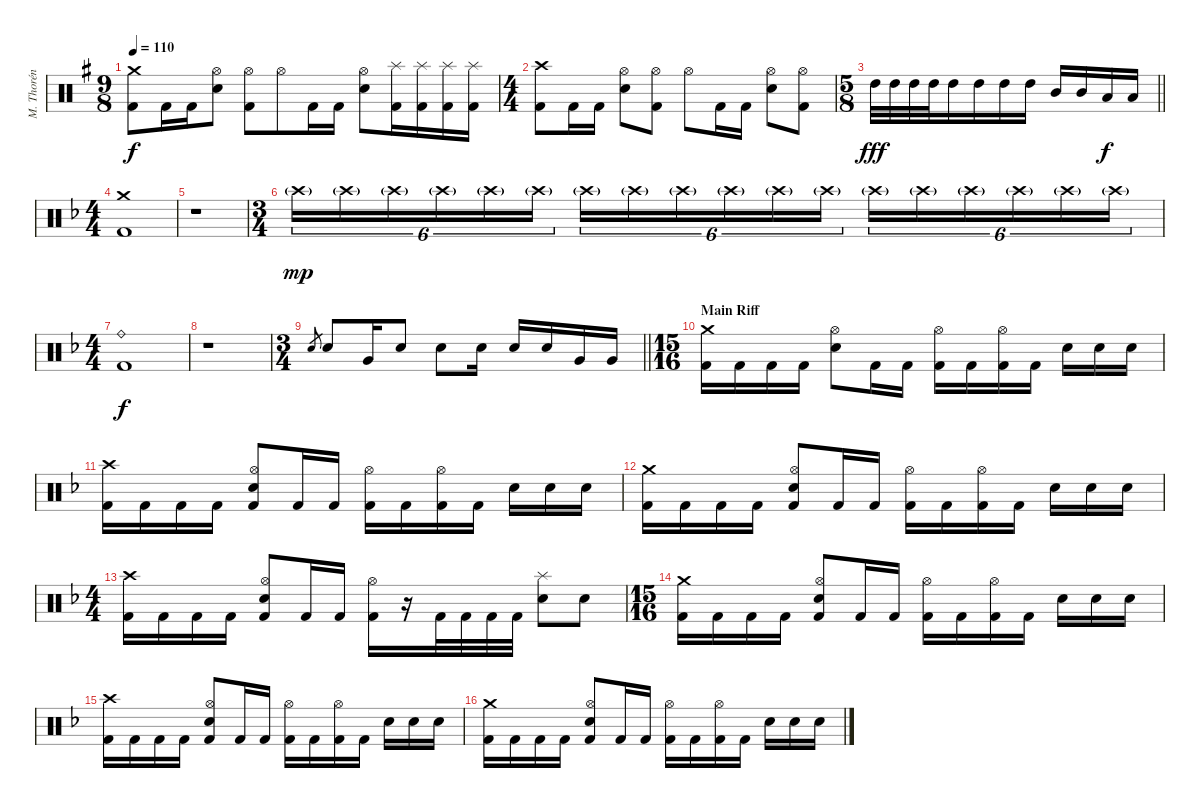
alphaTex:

\track ("M. Thorén (Drums)" "M. Thorén ") {instrument percussion}
\staff {score}
\articulation defaults
\ts (9 8)
\tempo 110
\clef neutral
\ks eminor
("Crash medium (hit)" "Kick (hit) 2").8{dy f} "Kick (hit) 2".16 "Kick (hit) 2".16 ("Hi-Hat (open)" "Electric Snare (hit)").8 ("Hi-Hat (open)" "Kick (hit) 2").8 "Hi-Hat (open)".8 "Kick (hit) 2".16 "Kick (hit) 2".16 ("Hi-Hat (open)" "Electric Snare (hit)").8 ("Splash (hit)" "Kick (hit) 2").16 ("Splash (hit)" "Kick (hit) 2").16 ("Splash (hit)" "Kick (hit) 2").16 ("Splash (hit)" "Kick (hit) 2").16 |
\ts (4 4)
("Crash high (hit)" "Kick (hit) 2").8 "Kick (hit) 2".16 "Kick (hit) 2".16 ("Hi-Hat (open)" "Electric Snare (hit)").8 ("Hi-Hat (open)" "Kick (hit) 2").8 "Hi-Hat (open)".8 "Kick (hit) 2".16 "Kick (hit) 2".16 ("Hi-Hat (open)" "Electric Snare (hit)").8 ("Hi-Hat (open)" "Kick (hit) 2").8 |
\ts (5 8)
\barLineRight lightlight "High Tom (hit)".32{dy fff} "High Tom (hit)".32 "High Tom (hit)".32 "High Tom (hit)".32 "High Tom (hit)".16 "High Tom (hit)".16 "High Tom (hit)".16 "High Tom (hit)".16 "Mid Tom (hit)".16 "Mid Tom (hit)".16 "Low Tom (hit)".16{dy f} "Low Tom (hit)".16
|
\ts (4 4)
\ks dminor
("Crash medium (hit)" "Kick (hit) 2").1 |
r.1 |
\ts (3 4)
"Crash high (hit)"{g}.16{tu (6 4) dy mp volume 0} "Crash high (hit)"{g}.16{tu (6 4) volume 12} "Crash high (hit)"{g}.16{tu (6 4)} "Crash high (hit)"{g}.16{tu (6 4)} "Crash high (hit)"{g}.16{tu (6 4)} "Crash high (hit)"{g}.16{tu (6 4)} "Crash high (hit)"{g}.16{tu (6 4)} "Crash high (hit)"{g}.16{tu (6 4)} "Crash high (hit)"{g}.16{tu (6 4)} "Crash high (hit)"{g}.16{tu (6 4)} "Crash high (hit)"{g}.16{tu (6 4)} "Crash high (hit)"{g}.16{tu (6 4)} "Crash high (hit)"{g}.16{tu (6 4)} "Crash high (hit)"{g}.16{tu (6 4)} "Crash high (hit)"{g}.16{tu (6 4)} "Crash high (hit)"{g}.16{tu (6 4)} "Crash high (hit)"{g}.16{tu (6 4)} "Crash high (hit)"{g}.16{tu (6 4)} |
\ts (4 4)
("Ride (bell)" "Kick (hit) 2").1{dy f} |
r.1 |
\ts (3 4)
\barLineRight lightlight "Electric Snare (hit)".8{gr} "Electric Snare (hit)".8 "Very Low Tom (hit)".16 "Electric Snare (hit)".8 "Electric Snare (hit)".8 "Electric Snare (hit)".16 "Electric Snare (hit)".16 "Electric Snare (hit)".16 "Very Low Tom (hit)".16 "Very Low Tom (hit)".16
|
\ts (15 16)
\section ("" "Main Riff")
("Crash medium (hit)" "Kick (hit) 2").16 "Kick (hit) 2".16 "Kick (hit) 2".16 "Kick (hit) 2".16 ("Hi-Hat (open)" "Electric Snare (hit)").8 "Kick (hit) 2".16 "Kick (hit) 2".16 ("Hi-Hat (open)" "Kick (hit) 2").16 "Kick (hit) 2".16 ("Hi-Hat (open)" "Kick (hit) 2").16 "Kick (hit) 2".16 "Electric Snare (hit)".16 "Electric Snare (hit)".16 "Electric Snare (hit)".16 |
("Crash high (hit)" "Kick (hit) 2").16 "Kick (hit) 2".16 "Kick (hit) 2".16 "Kick (hit) 2".16 ("Hi-Hat (open)" "Electric Snare (hit)" "Kick (hit) 2").8 "Kick (hit) 2".16 "Kick (hit) 2".16 ("Hi-Hat (open)" "Kick (hit) 2").16 "Kick (hit) 2".16 ("Hi-Hat (open)" "Kick (hit) 2").16 "Kick (hit) 2".16 "Electric Snare (hit)".16 "Electric Snare (hit)".16 "Electric Snare (hit)".16 |
("Crash medium (hit)" "Kick (hit) 2").16 "Kick (hit) 2".16 "Kick (hit) 2".16 "Kick (hit) 2".16 ("Hi-Hat (open)" "Electric Snare (hit)" "Kick (hit) 2").8 "Kick (hit) 2".16 "Kick (hit) 2".16 ("Hi-Hat (open)" "Kick (hit) 2").16 "Kick (hit) 2".16 ("Hi-Hat (open)" "Kick (hit) 2").16 "Kick (hit) 2".16 "Electric Snare (hit)".16 "Electric Snare (hit)".16 "Electric Snare (hit)".16 |
\ts (4 4)
("Crash high (hit)" "Kick (hit) 2").16 "Kick (hit) 2".16 "Kick (hit) 2".16 "Kick (hit) 2".16 ("Hi-Hat (open)" "Electric Snare (hit)" "Kick (hit) 2").8 "Kick (hit) 2".16 "Kick (hit) 2".16 ("Hi-Hat (open)" "Kick (hit) 2").16 r.16 "Kick (hit) 2".32 "Kick (hit) 2".32 "Kick (hit) 2".32 "Kick (hit) 2".32 ("Splash (hit)" "Electric Snare (hit)").8 "Electric Snare (hit)".8 |
\ts (15 16)
("Crash medium (hit)" "Kick (hit) 2").16 "Kick (hit) 2".16 "Kick (hit) 2".16 "Kick (hit) 2".16 ("Hi-Hat (open)" "Electric Snare (hit)" "Kick (hit) 2").8 "Kick (hit) 2".16 "Kick (hit) 2".16 ("Hi-Hat (open)" "Kick (hit) 2").16 "Kick (hit) 2".16 ("Hi-Hat (open)" "Kick (hit) 2").16 "Kick (hit) 2".16 "Electric Snare (hit)".16 "Electric Snare (hit)".16 "Electric Snare (hit)".16 |
("Crash high (hit)" "Kick (hit) 2").16 "Kick (hit) 2".16 "Kick (hit) 2".16 "Kick (hit) 2".16 ("Hi-Hat (open)" "Electric Snare (hit)" "Kick (hit) 2").8 "Kick (hit) 2".16 "Kick (hit) 2".16 ("Hi-Hat (open)" "Kick (hit) 2").16 "Kick (hit) 2".16 ("Hi-Hat (open)" "Kick (hit) 2").16 "Kick (hit) 2".16 "Electric Snare (hit)".16 "Electric Snare (hit)".16 "Electric Snare (hit)".16 |
("Crash medium (hit)" "Kick (hit) 2").16 "Kick (hit) 2".16 "Kick (hit) 2".16 "Kick (hit) 2".16 ("Hi-Hat (open)" "Electric Snare (hit)" "Kick (hit) 2").8 "Kick (hit) 2".16 "Kick (hit) 2".16 ("Hi-Hat (open)" "Kick (hit) 2").16 "Kick (hit) 2".16 ("Hi-Hat (open)" "Kick (hit) 2").16 "Kick (hit) 2".16 "Electric Snare (hit)".16 "Electric Snare (hit)".16 "Electric Snare (hit)".16
